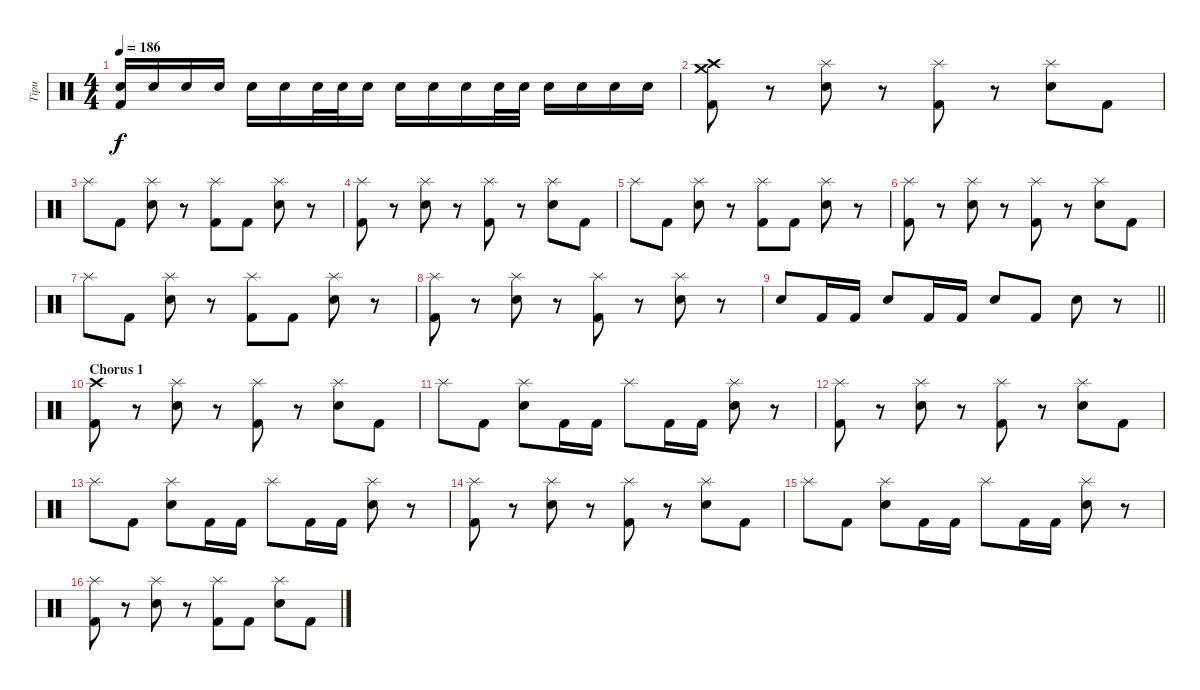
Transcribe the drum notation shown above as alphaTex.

\track ("Tipu" "Tipu") {instrument percussion}
\staff {score}
\articulation defaults
\ts (4 4)
\tempo 186
\clef neutral
\ks c
("Electric Snare (hit)" "Kick (hit) 2").16{dy f} "Electric Snare (hit)".16 "Electric Snare (hit)".16 "Electric Snare (hit)".16 "Electric Snare (hit)".16 "Electric Snare (hit)".16 "Electric Snare (hit)".32 "Electric Snare (hit)".32 "Electric Snare (hit)".16 "Electric Snare (hit)".16 "Electric Snare (hit)".16 "Electric Snare (hit)".16 "Electric Snare (hit)".32 "Electric Snare (hit)".32 "Electric Snare (hit)".16 "Electric Snare (hit)".16 "Electric Snare (hit)".16 "Electric Snare (hit)".16 |
("Crash high (hit)" "Crash medium (hit)" "Kick (hit) 2").8 r.8 ("Splash (hit)" "Electric Snare (hit)").8 r.8 ("Splash (hit)" "Kick (hit) 2").8 r.8 ("Splash (hit)" "Electric Snare (hit)").8 "Kick (hit) 2".8 |
"Splash (hit)".8 "Kick (hit) 2".8 ("Splash (hit)" "Electric Snare (hit)").8 r.8 ("Splash (hit)" "Kick (hit) 2").8 "Kick (hit) 2".8 ("Splash (hit)" "Electric Snare (hit)").8 r.8 |
("Splash (hit)" "Kick (hit) 2").8 r.8 ("Splash (hit)" "Electric Snare (hit)").8 r.8 ("Splash (hit)" "Kick (hit) 2").8 r.8 ("Splash (hit)" "Electric Snare (hit)").8 "Kick (hit) 2".8 |
"Splash (hit)".8 "Kick (hit) 2".8 ("Splash (hit)" "Electric Snare (hit)").8 r.8 ("Splash (hit)" "Kick (hit) 2").8 "Kick (hit) 2".8 ("Splash (hit)" "Electric Snare (hit)").8 r.8 |
("Splash (hit)" "Kick (hit) 2").8 r.8 ("Splash (hit)" "Electric Snare (hit)").8 r.8 ("Splash (hit)" "Kick (hit) 2").8 r.8 ("Splash (hit)" "Electric Snare (hit)").8 "Kick (hit) 2".8 |
"Splash (hit)".8 "Kick (hit) 2".8 ("Splash (hit)" "Electric Snare (hit)").8 r.8 ("Splash (hit)" "Kick (hit) 2").8 "Kick (hit) 2".8 ("Splash (hit)" "Electric Snare (hit)").8 r.8 |
("Splash (hit)" "Kick (hit) 2").8 r.8 ("Splash (hit)" "Electric Snare (hit)").8 r.8 ("Splash (hit)" "Kick (hit) 2").8 r.8 ("Splash (hit)" "Electric Snare (hit)").8 r.8 |
\barLineRight lightlight "Electric Snare (hit)".8 "Kick (hit) 2".16 "Kick (hit) 2".16 "Electric Snare (hit)".8 "Kick (hit) 2".16 "Kick (hit) 2".16 "Electric Snare (hit)".8 "Kick (hit) 2".8 "Electric Snare (hit)".8
r.8 |
\section ("" "Chorus 1")
("Crash high (hit)" "Kick (hit) 2").8 r.8 ("Splash (hit)" "Electric Snare (hit)").8 r.8 ("Splash (hit)" "Kick (hit) 2").8 r.8 ("Splash (hit)" "Electric Snare (hit)").8 "Kick (hit) 2".8 |
"Splash (hit)".8 "Kick (hit) 2".8 ("Splash (hit)" "Electric Snare (hit)").8 "Kick (hit) 2".16 "Kick (hit) 2".16 "Splash (hit)".8 "Kick (hit) 2".16 "Kick (hit) 2".16 ("Splash (hit)" "Electric Snare (hit)").8 r.8 |
("Splash (hit)" "Kick (hit) 2").8 r.8 ("Splash (hit)" "Electric Snare (hit)").8 r.8 ("Splash (hit)" "Kick (hit) 2").8 r.8 ("Splash (hit)" "Electric Snare (hit)").8 "Kick (hit) 2".8 |
"Splash (hit)".8 "Kick (hit) 2".8 ("Splash (hit)" "Electric Snare (hit)").8 "Kick (hit) 2".16 "Kick (hit) 2".16 "Splash (hit)".8 "Kick (hit) 2".16 "Kick (hit) 2".16 ("Splash (hit)" "Electric Snare (hit)").8 r.8 |
("Splash (hit)" "Kick (hit) 2").8 r.8 ("Splash (hit)" "Electric Snare (hit)").8 r.8 ("Splash (hit)" "Kick (hit) 2").8 r.8 ("Splash (hit)" "Electric Snare (hit)").8 "Kick (hit) 2".8 |
"Splash (hit)".8 "Kick (hit) 2".8 ("Splash (hit)" "Electric Snare (hit)").8 "Kick (hit) 2".16 "Kick (hit) 2".16 "Splash (hit)".8 "Kick (hit) 2".16 "Kick (hit) 2".16 ("Splash (hit)" "Electric Snare (hit)").8 r.8 |
("Splash (hit)" "Kick (hit) 2").8 r.8 ("Splash (hit)" "Electric Snare (hit)").8 r.8 ("Splash (hit)" "Kick (hit) 2").8 "Kick (hit) 2".8 ("Splash (hit)" "Electric Snare (hit)").8 "Kick (hit) 2".8
